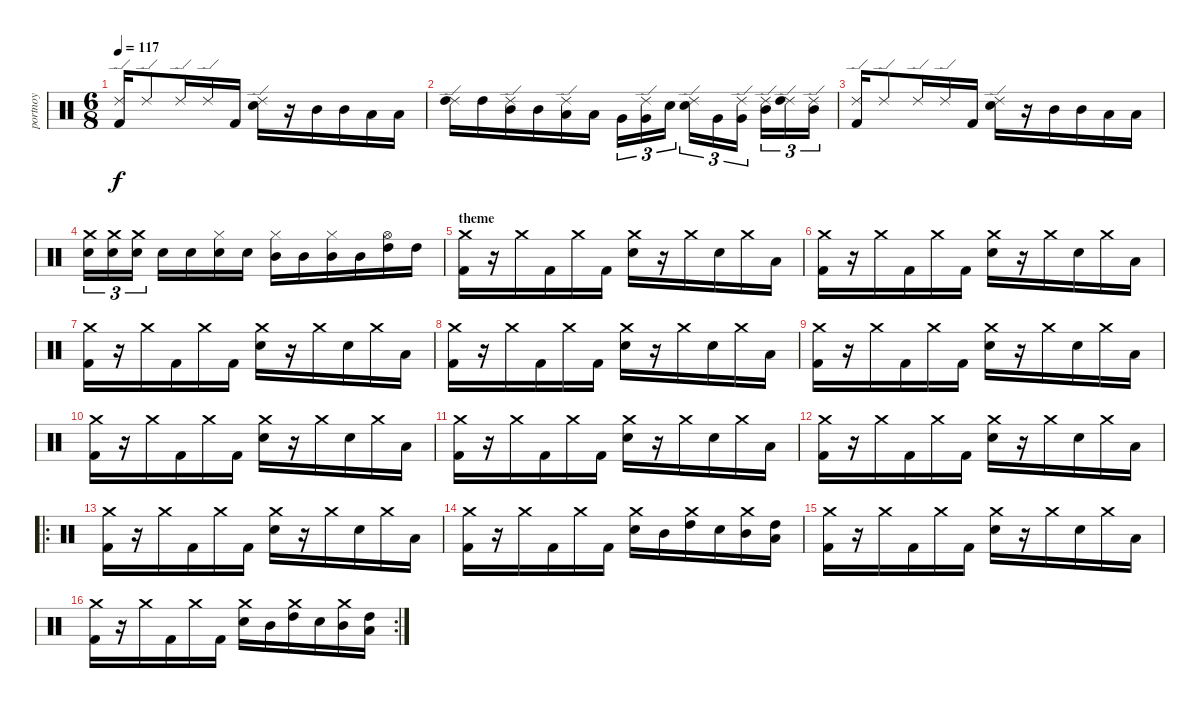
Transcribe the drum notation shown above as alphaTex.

\track ("portnoy" "portnoy") {instrument percussion}
\staff {score}
\articulation defaults
\ts (6 8)
\tempo 117
\clef neutral
\ks c
("Ride (edge) 2" "Kick (hit) 2").16{dy f} "Ride (edge) 2".8 "Ride (edge) 2".16 "Ride (edge) 2".16 "Kick (hit) 2".16 ("Ride (edge) 2" "Electric Snare (hit)").16 r.16 "Mid Tom (hit)".16 "Mid Tom (hit)".16 "Low Tom (hit)".16 "Low Tom (hit)".16 |
("Ride (edge) 2" "High Tom (hit)").16 "High Tom (hit)".16 ("Ride (edge) 2" "Mid Tom (hit)").16 "Mid Tom (hit)".16 ("Ride (edge) 2" "Low Tom (hit)").16 "Low Tom (hit)".16 "Very Low Tom (hit)".16{tu (3 2)} ("Ride (edge) 2" "Very Low Tom (hit)").16{tu (3 2)} "Electric Snare (hit)".16{tu (3 2)} ("Ride (edge) 2" "Electric Snare (hit)").16{tu (3 2)} "Very Low Tom (hit)".16{tu (3 2)} ("Ride (edge) 2" "Very Low Tom (hit)").16{tu (3 2)} ("Ride (edge) 2" "Mid Tom (hit)").16{tu (3 2)} ("Ride (edge) 2" "High Tom (hit)").16{tu (3 2)} ("Ride (edge) 2" "Mid Tom (hit)").16{tu (3 2)} |
("Ride (edge) 2" "Kick (hit) 2").16 "Ride (edge) 2".8 "Ride (edge) 2".16 "Ride (edge) 2".16 "Kick (hit) 2".16 ("Ride (edge) 2" "Electric Snare (hit)").16 r.16 "Mid Tom (hit)".16 "Mid Tom (hit)".16 "Low Tom (hit)".16 "Low Tom (hit)".16 |
("Crash medium (hit)" "Snare (hit) 2").16{tu (3 2)} ("Crash medium (hit)" "Snare (hit) 2").16{tu (3 2)} ("Crash medium (hit)" "Snare (hit) 2").16{tu (3 2)} "Electric Snare (hit)".16 "Electric Snare (hit)".16 ("Hi-Hat (closed)" "Electric Snare (hit)").16 "Electric Snare (hit)".16 ("Hi-Hat (closed)" "Mid Tom (hit)").16 "Mid Tom (hit)".16 ("Hi-Hat (closed)" "Mid Tom (hit)").16 "Mid Tom (hit)".16 ("Hi-Hat (open)" "High Tom (hit)").16 "High Tom (hit)".16 |
\section ("" "theme")
("Crash medium (hit)" "Kick (hit) 2").16 r.16 "Crash medium (hit)".16 "Kick (hit) 2".16 "Crash medium (hit)".16 "Kick (hit) 2".16 ("Crash medium (hit)" "Electric Snare (hit)").16 r.16 "Crash medium (hit)".16 "Electric Snare (hit)".16 "Crash medium (hit)".16 "Low Tom (hit)".16 |
("Crash medium (hit)" "Kick (hit) 2").16 r.16 "Crash medium (hit)".16 "Kick (hit) 2".16 "Crash medium (hit)".16 "Kick (hit) 2".16 ("Crash medium (hit)" "Electric Snare (hit)").16 r.16 "Crash medium (hit)".16 "Electric Snare (hit)".16 "Crash medium (hit)".16 "Low Tom (hit)".16 |
("Crash medium (hit)" "Kick (hit) 2").16 r.16 "Crash medium (hit)".16 "Kick (hit) 2".16 "Crash medium (hit)".16 "Kick (hit) 2".16 ("Crash medium (hit)" "Electric Snare (hit)").16 r.16 "Crash medium (hit)".16 "Electric Snare (hit)".16 "Crash medium (hit)".16 "Low Tom (hit)".16 |
("Crash medium (hit)" "Kick (hit) 2").16 r.16 "Crash medium (hit)".16 "Kick (hit) 2".16 "Crash medium (hit)".16 "Kick (hit) 2".16 ("Crash medium (hit)" "Electric Snare (hit)").16 r.16 "Crash medium (hit)".16 "Electric Snare (hit)".16 "Crash medium (hit)".16 "Low Tom (hit)".16 |
("Crash medium (hit)" "Kick (hit) 2").16 r.16 "Crash medium (hit)".16 "Kick (hit) 2".16 "Crash medium (hit)".16 "Kick (hit) 2".16 ("Crash medium (hit)" "Electric Snare (hit)").16 r.16 "Crash medium (hit)".16 "Electric Snare (hit)".16 "Crash medium (hit)".16 "Low Tom (hit)".16 |
("Crash medium (hit)" "Kick (hit) 2").16 r.16 "Crash medium (hit)".16 "Kick (hit) 2".16 "Crash medium (hit)".16 "Kick (hit) 2".16 ("Crash medium (hit)" "Electric Snare (hit)").16 r.16 "Crash medium (hit)".16 "Electric Snare (hit)".16 "Crash medium (hit)".16 "Low Tom (hit)".16 |
("Crash medium (hit)" "Kick (hit) 2").16 r.16 "Crash medium (hit)".16 "Kick (hit) 2".16 "Crash medium (hit)".16 "Kick (hit) 2".16 ("Crash medium (hit)" "Electric Snare (hit)").16 r.16 "Crash medium (hit)".16 "Electric Snare (hit)".16 "Crash medium (hit)".16 "Low Tom (hit)".16 |
("Crash medium (hit)" "Kick (hit) 2").16 r.16 "Crash medium (hit)".16 "Kick (hit) 2".16 "Crash medium (hit)".16 "Kick (hit) 2".16 ("Crash medium (hit)" "Electric Snare (hit)").16 r.16 "Crash medium (hit)".16 "Electric Snare (hit)".16 "Crash medium (hit)".16 "Low Tom (hit)".16 |
\ro
("Crash medium (hit)" "Kick (hit) 2").16 r.16 "Crash medium (hit)".16 "Kick (hit) 2".16 "Crash medium (hit)".16 "Kick (hit) 2".16 ("Crash medium (hit)" "Electric Snare (hit)").16 r.16 "Crash medium (hit)".16 "Electric Snare (hit)".16 "Crash medium (hit)".16 "Low Tom (hit)".16 |
("Crash medium (hit)" "Kick (hit) 2").16 r.16 "Crash medium (hit)".16 "Kick (hit) 2".16 "Crash medium (hit)".16 "Kick (hit) 2".16 ("Crash medium (hit)" "Electric Snare (hit)").16 "Mid Tom (hit)".16 ("High Tom (hit)" "Crash medium (hit)").16 "Electric Snare (hit)".16 ("Mid Tom (hit)" "Crash medium (hit)").16 ("High Tom (hit)" "Low Tom (hit)").16 |
("Crash medium (hit)" "Kick (hit) 2").16 r.16 "Crash medium (hit)".16 "Kick (hit) 2".16 "Crash medium (hit)".16 "Kick (hit) 2".16 ("Crash medium (hit)" "Electric Snare (hit)").16 r.16 "Crash medium (hit)".16 "Electric Snare (hit)".16 "Crash medium (hit)".16 "Low Tom (hit)".16 |
\rc 2
("Crash medium (hit)" "Kick (hit) 2").16 r.16 "Crash medium (hit)".16 "Kick (hit) 2".16 "Crash medium (hit)".16 "Kick (hit) 2".16 ("Crash medium (hit)" "Electric Snare (hit)").16 "Mid Tom (hit)".16 ("High Tom (hit)" "Crash medium (hit)").16 "Electric Snare (hit)".16 ("Mid Tom (hit)" "Crash medium (hit)").16 ("High Tom (hit)" "Low Tom (hit)").16
